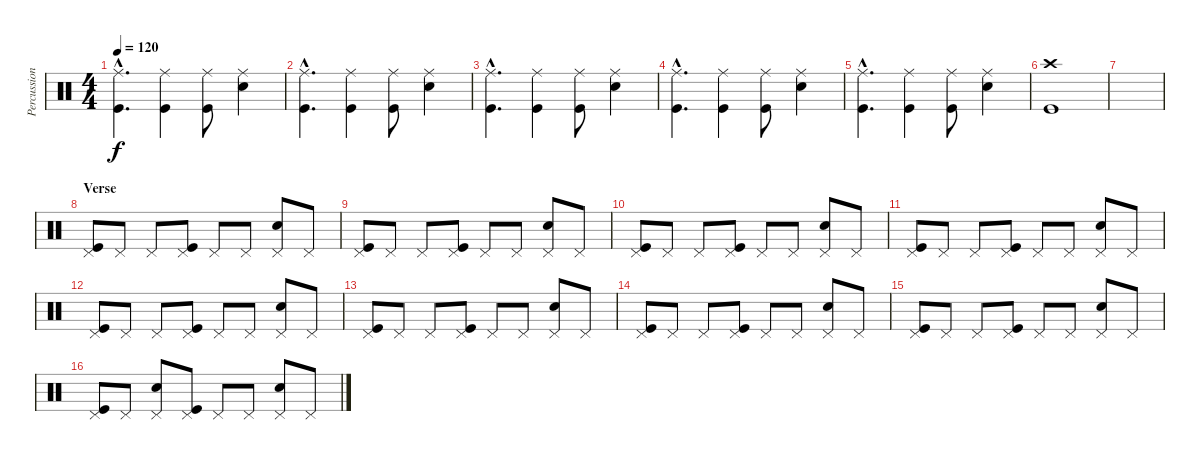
\track ("Percussions" "Percussion") {instrument percussion}
\staff {score}
\articulation defaults
\ts (4 4)
\tempo 120
\clef neutral
\ks c
("Ride (middle)"{hac} "Kick (hit)"{hac}).4{d dy f} ("Ride (middle)" "Kick (hit)").4 ("Ride (middle)" "Kick (hit)").8 ("Ride (middle)" "Electric Snare (hit)").4 |
("Ride (middle)"{hac} "Kick (hit)"{hac}).4{d} ("Ride (middle)" "Kick (hit)").4 ("Ride (middle)" "Kick (hit)").8 ("Ride (middle)" "Electric Snare (hit)").4 |
("Ride (middle)"{hac} "Kick (hit)"{hac}).4{d} ("Ride (middle)" "Kick (hit)").4 ("Ride (middle)" "Kick (hit)").8 ("Ride (middle)" "Electric Snare (hit)").4 |
("Ride (middle)"{hac} "Kick (hit)"{hac}).4{d} ("Ride (middle)" "Kick (hit)").4 ("Ride (middle)" "Kick (hit)").8 ("Ride (middle)" "Electric Snare (hit)").4 |
("Ride (middle)"{hac} "Kick (hit)"{hac}).4{d} ("Ride (middle)" "Kick (hit)").4 ("Ride (middle)" "Kick (hit)").8 ("Ride (middle)" "Electric Snare (hit)").4 |
("Crash high (hit)" "Kick (hit)").1 |
|
\section ("" "Verse")
("Pedal Hi-Hat (hit)" "Kick (hit)").8 "Pedal Hi-Hat (hit)".8 "Pedal Hi-Hat (hit)".8 ("Pedal Hi-Hat (hit)" "Kick (hit)").8 "Pedal Hi-Hat (hit)".8 "Pedal Hi-Hat (hit)".8 ("Pedal Hi-Hat (hit)" "Electric Snare (hit)").8 "Pedal Hi-Hat (hit)".8 |
("Pedal Hi-Hat (hit)" "Kick (hit)").8 "Pedal Hi-Hat (hit)".8 "Pedal Hi-Hat (hit)".8 ("Pedal Hi-Hat (hit)" "Kick (hit)").8 "Pedal Hi-Hat (hit)".8 "Pedal Hi-Hat (hit)".8 ("Pedal Hi-Hat (hit)" "Electric Snare (hit)").8 "Pedal Hi-Hat (hit)".8 |
("Pedal Hi-Hat (hit)" "Kick (hit)").8 "Pedal Hi-Hat (hit)".8 "Pedal Hi-Hat (hit)".8 ("Pedal Hi-Hat (hit)" "Kick (hit)").8 "Pedal Hi-Hat (hit)".8 "Pedal Hi-Hat (hit)".8 ("Pedal Hi-Hat (hit)" "Electric Snare (hit)").8 "Pedal Hi-Hat (hit)".8 |
("Pedal Hi-Hat (hit)" "Kick (hit)").8 "Pedal Hi-Hat (hit)".8 "Pedal Hi-Hat (hit)".8 ("Pedal Hi-Hat (hit)" "Kick (hit)").8 "Pedal Hi-Hat (hit)".8 "Pedal Hi-Hat (hit)".8 ("Pedal Hi-Hat (hit)" "Electric Snare (hit)").8 "Pedal Hi-Hat (hit)".8 |
("Pedal Hi-Hat (hit)" "Kick (hit)").8 "Pedal Hi-Hat (hit)".8 "Pedal Hi-Hat (hit)".8 ("Pedal Hi-Hat (hit)" "Kick (hit)").8 "Pedal Hi-Hat (hit)".8 "Pedal Hi-Hat (hit)".8 ("Pedal Hi-Hat (hit)" "Electric Snare (hit)").8 "Pedal Hi-Hat (hit)".8 |
("Pedal Hi-Hat (hit)" "Kick (hit)").8 "Pedal Hi-Hat (hit)".8 "Pedal Hi-Hat (hit)".8 ("Pedal Hi-Hat (hit)" "Kick (hit)").8 "Pedal Hi-Hat (hit)".8 "Pedal Hi-Hat (hit)".8 ("Pedal Hi-Hat (hit)" "Electric Snare (hit)").8 "Pedal Hi-Hat (hit)".8 |
("Pedal Hi-Hat (hit)" "Kick (hit)").8 "Pedal Hi-Hat (hit)".8 "Pedal Hi-Hat (hit)".8 ("Pedal Hi-Hat (hit)" "Kick (hit)").8 "Pedal Hi-Hat (hit)".8 "Pedal Hi-Hat (hit)".8 ("Pedal Hi-Hat (hit)" "Electric Snare (hit)").8 "Pedal Hi-Hat (hit)".8 |
("Pedal Hi-Hat (hit)" "Kick (hit)").8 "Pedal Hi-Hat (hit)".8 "Pedal Hi-Hat (hit)".8 ("Pedal Hi-Hat (hit)" "Kick (hit)").8 "Pedal Hi-Hat (hit)".8 "Pedal Hi-Hat (hit)".8 ("Pedal Hi-Hat (hit)" "Electric Snare (hit)").8 "Pedal Hi-Hat (hit)".8 |
("Pedal Hi-Hat (hit)" "Kick (hit)").8 "Pedal Hi-Hat (hit)".8 ("Pedal Hi-Hat (hit)" "Electric Snare (hit)").8 ("Pedal Hi-Hat (hit)" "Kick (hit)").8 "Pedal Hi-Hat (hit)".8 "Pedal Hi-Hat (hit)".8 ("Pedal Hi-Hat (hit)" "Electric Snare (hit)").8 "Pedal Hi-Hat (hit)".8
